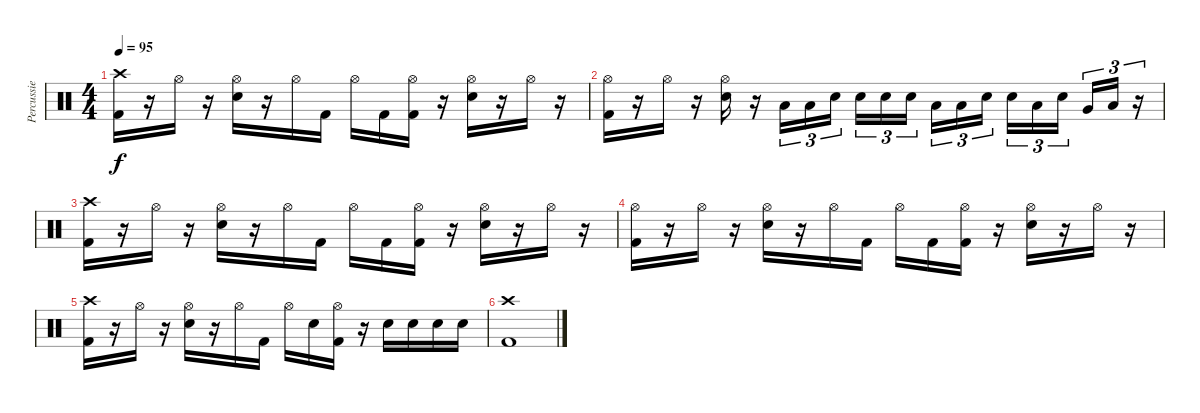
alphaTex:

\track ("Percussie" "Percussie") {instrument percussion}
\staff {score}
\articulation defaults
\ts (4 4)
\tempo 95
\clef neutral
\ks c
("Crash high (hit)" "Kick (hit) 2").16{dy f} r.16 "Hi-Hat (open)".16 r.16 ("Hi-Hat (open)" "Electric Snare (hit)").16 r.16 "Hi-Hat (open)".16 "Kick (hit) 2".16 "Hi-Hat (open)".16 "Kick (hit) 2".16 ("Hi-Hat (open)" "Kick (hit) 2").16 r.16 ("Hi-Hat (open)" "Electric Snare (hit)").16 r.16 "Hi-Hat (open)".16 r.16 |
("Hi-Hat (open)" "Kick (hit) 2").16 r.16 "Hi-Hat (open)".16 r.16 ("Hi-Hat (open)" "Electric Snare (hit)").16 r.16 "Low Tom (hit)".16{tu (3 2)} "Low Tom (hit)".16{tu (3 2)} "Electric Snare (hit)".16{tu (3 2)} "Electric Snare (hit)".16{tu (3 2)} "Electric Snare (hit)".16{tu (3 2)} "Electric Snare (hit)".16{tu (3 2) beam splitsecondary} "Low Tom (hit)".16{tu (3 2)} "Low Tom (hit)".16{tu (3 2)} "Electric Snare (hit)".16{tu (3 2)} "Electric Snare (hit)".16{tu (3 2)} "Low Tom (hit)".16{tu (3 2)} "Electric Snare (hit)".16{tu (3 2) beam splitsecondary} "Very Low Tom (hit)".16{tu (3 2)} "Low Tom (hit)".16{tu (3 2)} r.16{tu (3 2)} |
("Crash high (hit)" "Kick (hit) 2").16 r.16 "Hi-Hat (open)".16 r.16 ("Hi-Hat (open)" "Electric Snare (hit)").16 r.16 "Hi-Hat (open)".16 "Kick (hit) 2".16 "Hi-Hat (open)".16 "Kick (hit) 2".16 ("Hi-Hat (open)" "Kick (hit) 2").16 r.16 ("Hi-Hat (open)" "Electric Snare (hit)").16 r.16 "Hi-Hat (open)".16 r.16 |
("Hi-Hat (open)" "Kick (hit) 2").16 r.16 "Hi-Hat (open)".16 r.16 ("Hi-Hat (open)" "Electric Snare (hit)").16 r.16 "Hi-Hat (open)".16 "Kick (hit) 2".16 "Hi-Hat (open)".16 "Kick (hit) 2".16 ("Hi-Hat (open)" "Kick (hit) 2").16 r.16 ("Hi-Hat (open)" "Electric Snare (hit)").16 r.16 "Hi-Hat (open)".16 r.16 |
("Crash high (hit)" "Kick (hit) 2").16 r.16 "Hi-Hat (open)".16 r.16 ("Hi-Hat (open)" "Electric Snare (hit)").16 r.16 "Hi-Hat (open)".16 "Kick (hit) 2".16 "Hi-Hat (open)".16 "Electric Snare (hit)".16 ("Hi-Hat (open)" "Kick (hit) 2").16 r.16 "Electric Snare (hit)".16 "Electric Snare (hit)".16 "Electric Snare (hit)".16 "Electric Snare (hit)".16 |
("Crash high (hit)" "Kick (hit) 2").1
